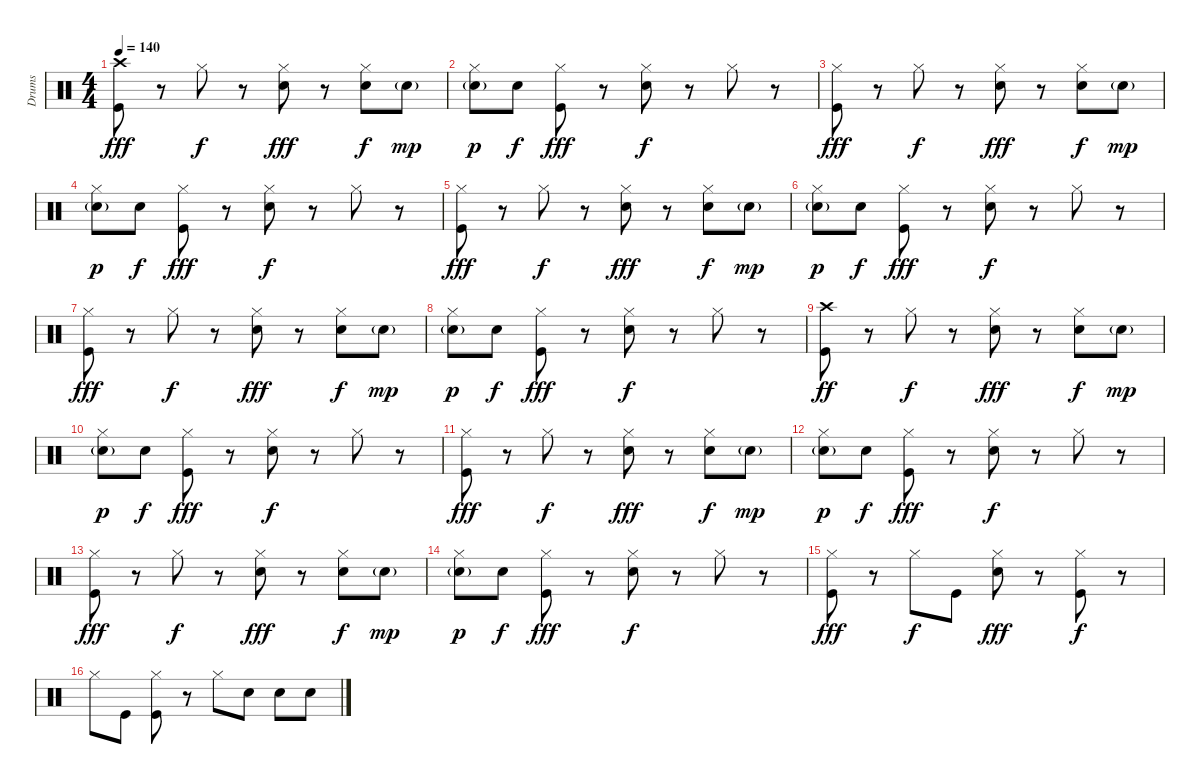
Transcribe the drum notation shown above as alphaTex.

\track ("Drums" "Drums") {instrument percussion}
\staff {score}
\articulation defaults
\ts (4 4)
\tempo 140
\clef neutral
\ks c
("Crash high (hit)" "Kick (hit)").8{dy fff} r.8 "Hi-Hat (closed)".8{dy f} r.8 ("Hi-Hat (closed)" "Snare (hit) 2").8{dy fff} r.8 ("Hi-Hat (closed)" "Snare (hit) 2").8{dy f} "Snare (hit) 2"{g}.8{dy mp} |
("Hi-Hat (closed)" "Snare (hit) 2"{g}).8{dy p} "Snare (hit) 2".8{dy f} ("Hi-Hat (closed)" "Kick (hit)").8{dy fff} r.8 ("Hi-Hat (closed)" "Snare (hit) 2").8{dy f} r.8 "Hi-Hat (closed)".8 r.8 |
("Hi-Hat (closed)" "Kick (hit)").8{dy fff} r.8 "Hi-Hat (closed)".8{dy f} r.8 ("Hi-Hat (closed)" "Snare (hit) 2").8{dy fff} r.8 ("Hi-Hat (closed)" "Snare (hit) 2").8{dy f} "Snare (hit) 2"{g}.8{dy mp} |
("Hi-Hat (closed)" "Snare (hit) 2"{g}).8{dy p} "Snare (hit) 2".8{dy f} ("Hi-Hat (closed)" "Kick (hit)").8{dy fff} r.8 ("Hi-Hat (closed)" "Snare (hit) 2").8{dy f} r.8 "Hi-Hat (closed)".8 r.8 |
("Hi-Hat (closed)" "Kick (hit)").8{dy fff} r.8 "Hi-Hat (closed)".8{dy f} r.8 ("Hi-Hat (closed)" "Snare (hit) 2").8{dy fff} r.8 ("Hi-Hat (closed)" "Snare (hit) 2").8{dy f} "Snare (hit) 2"{g}.8{dy mp} |
("Hi-Hat (closed)" "Snare (hit) 2"{g}).8{dy p} "Snare (hit) 2".8{dy f} ("Hi-Hat (closed)" "Kick (hit)").8{dy fff} r.8 ("Hi-Hat (closed)" "Snare (hit) 2").8{dy f} r.8 "Hi-Hat (closed)".8 r.8 |
("Hi-Hat (closed)" "Kick (hit)").8{dy fff} r.8 "Hi-Hat (closed)".8{dy f} r.8 ("Hi-Hat (closed)" "Snare (hit) 2").8{dy fff} r.8 ("Hi-Hat (closed)" "Snare (hit) 2").8{dy f} "Snare (hit) 2"{g}.8{dy mp} |
("Hi-Hat (closed)" "Snare (hit) 2"{g}).8{dy p} "Snare (hit) 2".8{dy f} ("Hi-Hat (closed)" "Kick (hit)").8{dy fff} r.8 ("Hi-Hat (closed)" "Snare (hit) 2").8{dy f} r.8 "Hi-Hat (closed)".8 r.8 |
("Crash high (hit)" "Kick (hit)").8{dy ff} r.8 "Hi-Hat (closed)".8{dy f} r.8 ("Hi-Hat (closed)" "Snare (hit) 2").8{dy fff} r.8 ("Hi-Hat (closed)" "Snare (hit) 2").8{dy f} "Snare (hit) 2"{g}.8{dy mp} |
("Hi-Hat (closed)" "Snare (hit) 2"{g}).8{dy p} "Snare (hit) 2".8{dy f} ("Hi-Hat (closed)" "Kick (hit)").8{dy fff} r.8 ("Hi-Hat (closed)" "Snare (hit) 2").8{dy f} r.8 "Hi-Hat (closed)".8 r.8 |
("Hi-Hat (closed)" "Kick (hit)").8{dy fff} r.8 "Hi-Hat (closed)".8{dy f} r.8 ("Hi-Hat (closed)" "Snare (hit) 2").8{dy fff} r.8 ("Hi-Hat (closed)" "Snare (hit) 2").8{dy f} "Snare (hit) 2"{g}.8{dy mp} |
("Hi-Hat (closed)" "Snare (hit) 2"{g}).8{dy p} "Snare (hit) 2".8{dy f} ("Hi-Hat (closed)" "Kick (hit)").8{dy fff} r.8 ("Hi-Hat (closed)" "Snare (hit) 2").8{dy f} r.8 "Hi-Hat (closed)".8 r.8 |
("Hi-Hat (closed)" "Kick (hit)").8{dy fff} r.8 "Hi-Hat (closed)".8{dy f} r.8 ("Hi-Hat (closed)" "Snare (hit) 2").8{dy fff} r.8 ("Hi-Hat (closed)" "Snare (hit) 2").8{dy f} "Snare (hit) 2"{g}.8{dy mp} |
("Hi-Hat (closed)" "Snare (hit) 2"{g}).8{dy p} "Snare (hit) 2".8{dy f} ("Hi-Hat (closed)" "Kick (hit)").8{dy fff} r.8 ("Hi-Hat (closed)" "Snare (hit) 2").8{dy f} r.8 "Hi-Hat (closed)".8 r.8 |
("Hi-Hat (closed)" "Kick (hit)").8{dy fff} r.8 "Hi-Hat (closed)".8{dy f} "Kick (hit)".8 ("Hi-Hat (closed)" "Snare (hit) 2").8{dy fff} r.8 ("Hi-Hat (closed)" "Kick (hit)").8{dy f} r.8 |
"Hi-Hat (closed)".8 "Kick (hit)".8 ("Hi-Hat (closed)" "Kick (hit)").8 r.8 "Hi-Hat (closed)".8 "Snare (hit) 2".8 "Snare (hit) 2".8 "Snare (hit) 2".8
